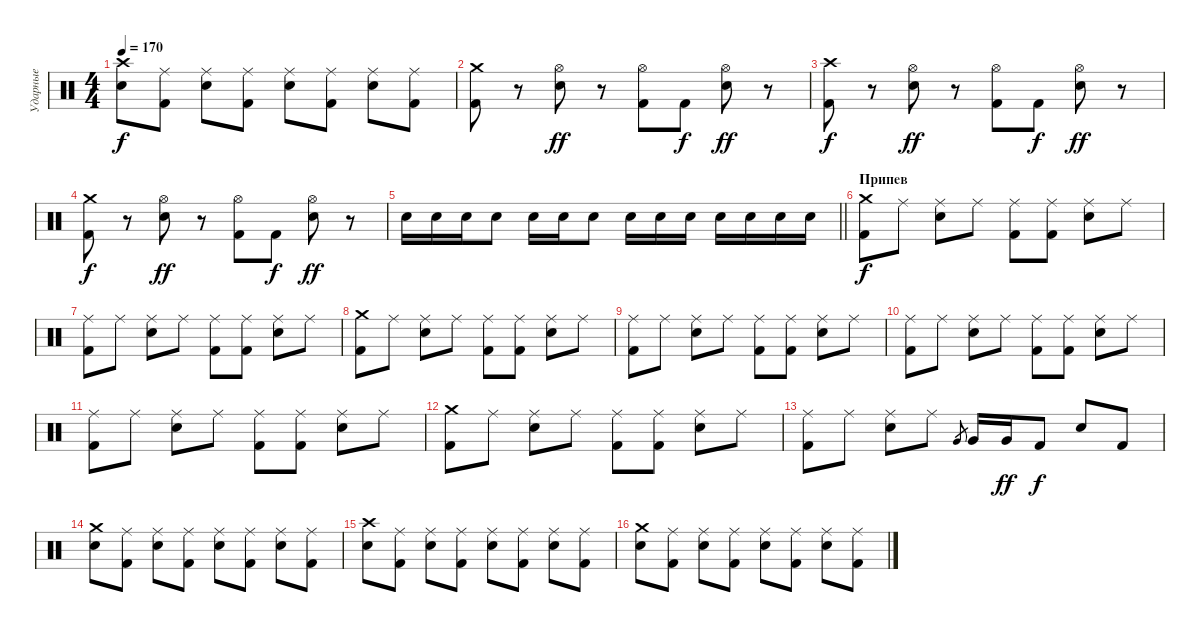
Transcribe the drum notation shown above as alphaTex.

\track ("Ударные" "Ударные") {instrument percussion}
\staff {score}
\articulation defaults
\ts (4 4)
\tempo 170
\clef neutral
\ks c
("Crash high (hit)" "Snare (hit) 2").8{dy f} ("Ride (middle)" "Kick (hit) 2").8 ("Ride (middle)" "Snare (hit) 2").8 ("Ride (middle)" "Kick (hit) 2").8 ("Ride (middle)" "Snare (hit) 2").8 ("Ride (middle)" "Kick (hit) 2").8 ("Ride (middle)" "Snare (hit) 2").8 ("Ride (middle)" "Kick (hit) 2").8 |
("Crash medium (hit)" "Kick (hit) 2").8 r.8 ("Hi-Hat (open)" "Snare (hit) 2").8{dy ff} r.8 ("Hi-Hat (open)" "Kick (hit) 2").8 "Kick (hit) 2".8{dy f} ("Hi-Hat (open)" "Snare (hit) 2").8{dy ff} r.8 |
("Crash high (hit)" "Kick (hit) 2").8{dy f} r.8 ("Hi-Hat (open)" "Snare (hit) 2").8{dy ff} r.8 ("Hi-Hat (open)" "Kick (hit) 2").8 "Kick (hit) 2".8{dy f} ("Hi-Hat (open)" "Snare (hit) 2").8{dy ff} r.8 |
("Crash medium (hit)" "Kick (hit) 2").8{dy f} r.8 ("Hi-Hat (open)" "Snare (hit) 2").8{dy ff} r.8 ("Hi-Hat (open)" "Kick (hit) 2").8 "Kick (hit) 2".8{dy f} ("Hi-Hat (open)" "Snare (hit) 2").8{dy ff} r.8 |
\barLineRight lightlight "Snare (hit) 2".16 "Snare (hit) 2".16 "Snare (hit) 2".16 "Snare (hit) 2".8 "Snare (hit) 2".16 "Snare (hit) 2".16 "Snare (hit) 2".8 "Snare (hit) 2".16 "Snare (hit) 2".16 "Snare (hit) 2".16 "Snare (hit) 2".16 "Snare (hit) 2".16 "Snare (hit) 2".16 "Snare (hit) 2".16
|
\section ("" "Припев")
("Crash medium (hit)" "Kick (hit) 2").8{dy f} "Ride (middle)".8 ("Ride (middle)" "Snare (hit) 2").8 "Ride (middle)".8 ("Ride (middle)" "Kick (hit) 2").8 ("Ride (middle)" "Kick (hit) 2").8 ("Ride (middle)" "Snare (hit) 2").8 "Ride (middle)".8 |
("Ride (middle)" "Kick (hit) 2").8 "Ride (middle)".8 ("Ride (middle)" "Snare (hit) 2").8 "Ride (middle)".8 ("Ride (middle)" "Kick (hit) 2").8 ("Ride (middle)" "Kick (hit) 2").8 ("Ride (middle)" "Snare (hit) 2").8 "Ride (middle)".8 |
("Crash medium (hit)" "Kick (hit) 2").8 "Ride (middle)".8 ("Ride (middle)" "Snare (hit) 2").8 "Ride (middle)".8 ("Ride (middle)" "Kick (hit) 2").8 ("Ride (middle)" "Kick (hit) 2").8 ("Ride (middle)" "Snare (hit) 2").8 "Ride (middle)".8 |
("Ride (middle)" "Kick (hit) 2").8 "Ride (middle)".8 ("Ride (middle)" "Snare (hit) 2").8 "Ride (middle)".8 ("Ride (middle)" "Kick (hit) 2").8 ("Ride (middle)" "Kick (hit) 2").8 ("Ride (middle)" "Snare (hit) 2").8 "Ride (middle)".8 |
("Ride (middle)" "Kick (hit) 2").8 "Ride (middle)".8 ("Ride (middle)" "Snare (hit) 2").8 "Ride (middle)".8 ("Ride (middle)" "Kick (hit) 2").8 ("Ride (middle)" "Kick (hit) 2").8 ("Ride (middle)" "Snare (hit) 2").8 "Ride (middle)".8 |
("Ride (middle)" "Kick (hit) 2").8 "Ride (middle)".8 ("Ride (middle)" "Snare (hit) 2").8 "Ride (middle)".8 ("Ride (middle)" "Kick (hit) 2").8 ("Ride (middle)" "Kick (hit) 2").8 ("Ride (middle)" "Snare (hit) 2").8 "Ride (middle)".8 |
("Crash medium (hit)" "Kick (hit) 2").8 "Ride (middle)".8 ("Ride (middle)" "Snare (hit) 2").8 "Ride (middle)".8 ("Ride (middle)" "Kick (hit) 2").8 ("Ride (middle)" "Kick (hit) 2").8 ("Ride (middle)" "Snare (hit) 2").8 "Ride (middle)".8 |
("Ride (middle)" "Kick (hit) 2").8 "Ride (middle)".8 ("Ride (middle)" "Snare (hit) 2").8 "Ride (middle)".8 "Very Low Tom (hit)".8{gr} "Very Low Tom (hit)".16 "Very Low Tom (hit)".16{dy ff} "Kick (hit) 2".8{dy f} "Snare (hit) 2".8 "Kick (hit) 2".8 |
("Crash medium (hit)" "Snare (hit) 2").8 ("Ride (middle)" "Kick (hit) 2").8 ("Ride (middle)" "Snare (hit) 2").8 ("Ride (middle)" "Kick (hit) 2").8 ("Ride (middle)" "Snare (hit) 2").8 ("Ride (middle)" "Kick (hit) 2").8 ("Ride (middle)" "Snare (hit) 2").8 ("Ride (middle)" "Kick (hit) 2").8 |
("Crash high (hit)" "Snare (hit) 2").8 ("Ride (middle)" "Kick (hit) 2").8 ("Ride (middle)" "Snare (hit) 2").8 ("Ride (middle)" "Kick (hit) 2").8 ("Ride (middle)" "Snare (hit) 2").8 ("Ride (middle)" "Kick (hit) 2").8 ("Ride (middle)" "Snare (hit) 2").8 ("Ride (middle)" "Kick (hit) 2").8 |
("Crash medium (hit)" "Snare (hit) 2").8 ("Ride (middle)" "Kick (hit) 2").8 ("Ride (middle)" "Snare (hit) 2").8 ("Ride (middle)" "Kick (hit) 2").8 ("Ride (middle)" "Snare (hit) 2").8 ("Ride (middle)" "Kick (hit) 2").8 ("Ride (middle)" "Snare (hit) 2").8 ("Ride (middle)" "Kick (hit) 2").8
